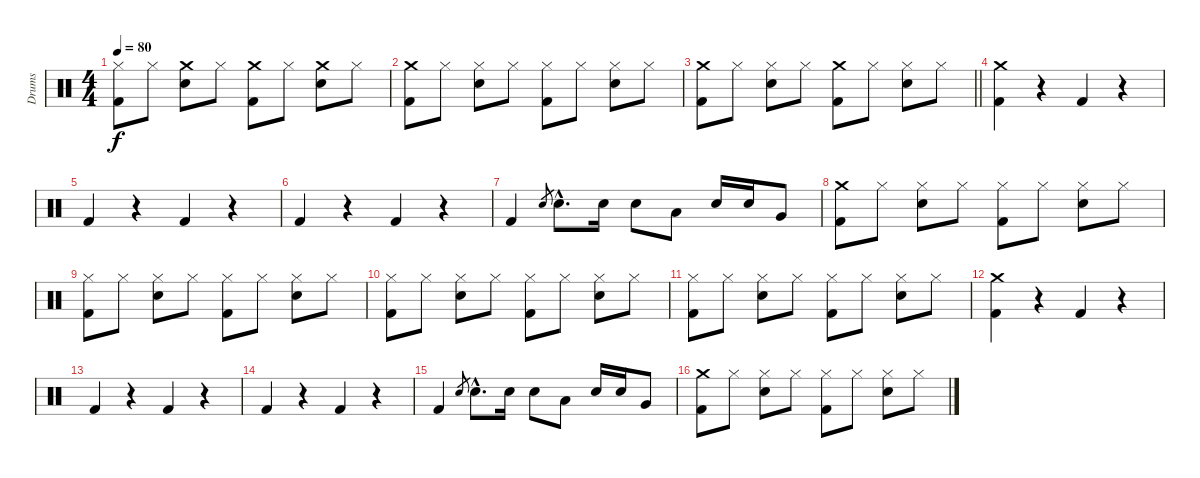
\track ("Drums" "Drums") {instrument percussion}
\staff {score}
\articulation defaults
\ts (4 4)
\tempo 80
\clef neutral
\ks c
("Hi-Hat (closed)" "Kick (hit) 2").8{dy f} "Hi-Hat (closed)".8 ("Crash medium (hit)" "Snare (hit) 2").8 "Hi-Hat (closed)".8 ("Crash medium (hit)" "Kick (hit) 2").8 "Hi-Hat (closed)".8 ("Crash medium (hit)" "Snare (hit) 2").8 "Hi-Hat (closed)".8 |
("Crash medium (hit)" "Kick (hit) 2").8 "Hi-Hat (closed)".8 ("Hi-Hat (closed)" "Snare (hit) 2").8 "Hi-Hat (closed)".8 ("Hi-Hat (closed)" "Kick (hit) 2").8 "Hi-Hat (closed)".8 ("Hi-Hat (closed)" "Snare (hit) 2").8 "Hi-Hat (closed)".8 |
\barLineRight lightlight
("Crash medium (hit)" "Kick (hit) 2").8 "Hi-Hat (closed)".8 ("Hi-Hat (closed)" "Snare (hit) 2").8 "Hi-Hat (closed)".8 ("Crash medium (hit)" "Kick (hit) 2").8 "Hi-Hat (closed)".8 ("Hi-Hat (closed)" "Snare (hit) 2").8 "Hi-Hat (closed)".8 |
("Crash medium (hit)" "Kick (hit) 2").4 r.4 "Kick (hit) 2".4 r.4 |
"Kick (hit) 2".4 r.4 "Kick (hit) 2".4 r.4 |
"Kick (hit) 2".4 r.4 "Kick (hit) 2".4 r.4 |
"Kick (hit) 2".4 "Snare (hit) 2".8{gr} "Snare (hit) 2"{hac}.8{d} "Snare (hit) 2".16 "Snare (hit) 2".8 "Low Tom (hit)".8 "Snare (hit) 2".16 "Snare (hit) 2".16 "Very Low Tom (hit)".8 |
("Crash medium (hit)" "Kick (hit) 2").8 "Hi-Hat (closed)".8 ("Hi-Hat (closed)" "Snare (hit) 2").8 "Hi-Hat (closed)".8 ("Hi-Hat (closed)" "Kick (hit) 2").8 "Hi-Hat (closed)".8 ("Hi-Hat (closed)" "Snare (hit) 2").8 "Hi-Hat (closed)".8 |
("Hi-Hat (closed)" "Kick (hit) 2").8 "Hi-Hat (closed)".8 ("Hi-Hat (closed)" "Snare (hit) 2").8 "Hi-Hat (closed)".8 ("Hi-Hat (closed)" "Kick (hit) 2").8 "Hi-Hat (closed)".8 ("Hi-Hat (closed)" "Snare (hit) 2").8 "Hi-Hat (closed)".8 |
("Hi-Hat (closed)" "Kick (hit) 2").8 "Hi-Hat (closed)".8 ("Hi-Hat (closed)" "Snare (hit) 2").8 "Hi-Hat (closed)".8 ("Hi-Hat (closed)" "Kick (hit) 2").8 "Hi-Hat (closed)".8 ("Hi-Hat (closed)" "Snare (hit) 2").8 "Hi-Hat (closed)".8 |
("Hi-Hat (closed)" "Kick (hit) 2").8 "Hi-Hat (closed)".8 ("Hi-Hat (closed)" "Snare (hit) 2").8 "Hi-Hat (closed)".8 ("Hi-Hat (closed)" "Kick (hit) 2").8 "Hi-Hat (closed)".8 ("Hi-Hat (closed)" "Snare (hit) 2").8 "Hi-Hat (closed)".8 |
("Crash medium (hit)" "Kick (hit) 2").4 r.4 "Kick (hit) 2".4 r.4 |
"Kick (hit) 2".4 r.4 "Kick (hit) 2".4 r.4 |
"Kick (hit) 2".4 r.4 "Kick (hit) 2".4 r.4 |
"Kick (hit) 2".4 "Snare (hit) 2".8{gr} "Snare (hit) 2"{hac}.8{d} "Snare (hit) 2".16 "Snare (hit) 2".8 "Low Tom (hit)".8 "Snare (hit) 2".16 "Snare (hit) 2".16 "Very Low Tom (hit)".8 |
("Crash medium (hit)" "Kick (hit) 2").8 "Hi-Hat (closed)".8 ("Hi-Hat (closed)" "Snare (hit) 2").8 "Hi-Hat (closed)".8 ("Hi-Hat (closed)" "Kick (hit) 2").8 "Hi-Hat (closed)".8 ("Hi-Hat (closed)" "Snare (hit) 2").8 "Hi-Hat (closed)".8
